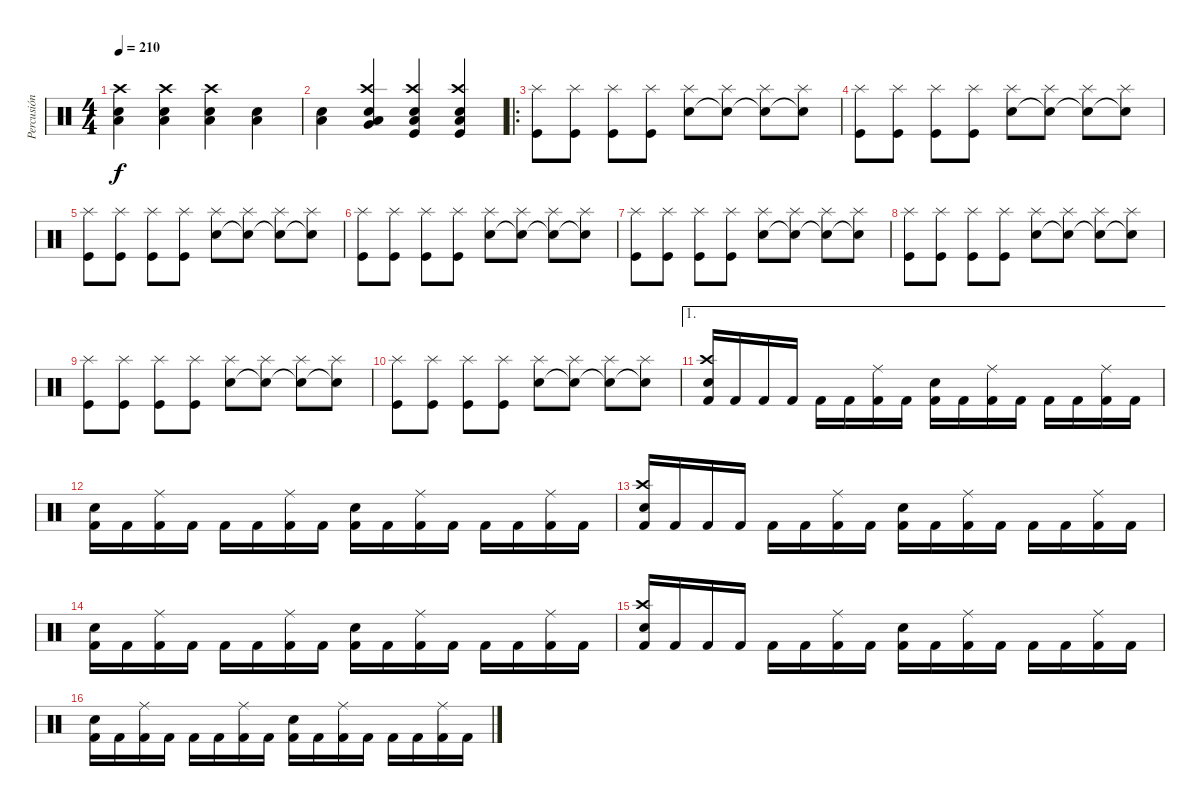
\track ("Percusión" "Percusión") {instrument percussion}
\staff {score}
\articulation defaults
\ts (4 4)
\tempo 210
\clef neutral
\ks c
("Snare (hit) 2" "Low Floor Tom (hit)" "Crash high (hit)").4{dy f} ("Snare (hit) 2" "Low Floor Tom (hit)" "Crash high (hit)").4 ("Snare (hit) 2" "Low Floor Tom (hit)" "Crash high (hit)").4 ("Snare (hit) 2" "Low Floor Tom (hit)").4 |
("Snare (hit) 2" "Low Floor Tom (hit)").4 ("Very Low Tom (hit)" "Snare (hit) 2" "Low Floor Tom (hit)" "Crash high (hit)").4 ("Kick (hit)" "Snare (hit) 2" "Low Floor Tom (hit)" "Crash high (hit)").4 ("Kick (hit)" "Snare (hit) 2" "Low Floor Tom (hit)" "Crash high (hit)").4 |
\ro
("Splash (hit)" "Kick (hit)").8 ("Splash (hit)" "Kick (hit)").8 ("Splash (hit)" "Kick (hit)").8 ("Splash (hit)" "Kick (hit)").8 ("Snare (hit) 2" "Splash (hit)").8 ("Snare (hit)"{t} "Splash (hit)").8 ("Snare (hit)"{t} "Splash (hit)").8 ("Snare (hit)"{t} "Splash (hit)").8 |
("Splash (hit)" "Kick (hit)").8 ("Splash (hit)" "Kick (hit)").8 ("Splash (hit)" "Kick (hit)").8 ("Splash (hit)" "Kick (hit)").8 ("Snare (hit) 2" "Splash (hit)").8 ("Snare (hit)"{t} "Splash (hit)").8 ("Snare (hit)"{t} "Splash (hit)").8 ("Snare (hit)"{t} "Splash (hit)").8 |
("Splash (hit)" "Kick (hit)").8 ("Splash (hit)" "Kick (hit)").8 ("Splash (hit)" "Kick (hit)").8 ("Splash (hit)" "Kick (hit)").8 ("Snare (hit) 2" "Splash (hit)").8 ("Snare (hit)"{t} "Splash (hit)").8 ("Snare (hit)"{t} "Splash (hit)").8 ("Snare (hit)"{t} "Splash (hit)").8 |
("Splash (hit)" "Kick (hit)").8 ("Splash (hit)" "Kick (hit)").8 ("Splash (hit)" "Kick (hit)").8 ("Splash (hit)" "Kick (hit)").8 ("Snare (hit) 2" "Splash (hit)").8 ("Snare (hit)"{t} "Splash (hit)").8 ("Snare (hit)"{t} "Splash (hit)").8 ("Snare (hit)"{t} "Splash (hit)").8 |
("Splash (hit)" "Kick (hit)").8 ("Splash (hit)" "Kick (hit)").8 ("Splash (hit)" "Kick (hit)").8 ("Splash (hit)" "Kick (hit)").8 ("Snare (hit) 2" "Splash (hit)").8 ("Snare (hit)"{t} "Splash (hit)").8 ("Snare (hit)"{t} "Splash (hit)").8 ("Snare (hit)"{t} "Splash (hit)").8 |
("Splash (hit)" "Kick (hit)").8 ("Splash (hit)" "Kick (hit)").8 ("Splash (hit)" "Kick (hit)").8 ("Splash (hit)" "Kick (hit)").8 ("Snare (hit) 2" "Splash (hit)").8 ("Snare (hit)"{t} "Splash (hit)").8 ("Snare (hit)"{t} "Splash (hit)").8 ("Snare (hit)"{t} "Splash (hit)").8 |
("Splash (hit)" "Kick (hit)").8 ("Splash (hit)" "Kick (hit)").8 ("Splash (hit)" "Kick (hit)").8 ("Splash (hit)" "Kick (hit)").8 ("Snare (hit) 2" "Splash (hit)").8 ("Snare (hit)"{t} "Splash (hit)").8 ("Snare (hit)"{t} "Splash (hit)").8 ("Snare (hit)"{t} "Splash (hit)").8 |
("Splash (hit)" "Kick (hit)").8 ("Splash (hit)" "Kick (hit)").8 ("Splash (hit)" "Kick (hit)").8 ("Splash (hit)" "Kick (hit)").8 ("Snare (hit) 2" "Splash (hit)").8 ("Snare (hit)"{t} "Splash (hit)").8 ("Snare (hit)"{t} "Splash (hit)").8 ("Snare (hit)"{t} "Splash (hit)").8 |
\ae 1
("Kick (hit) 2" "Snare (hit) 2" "Crash high (hit)").16 "Kick (hit) 2".16 "Kick (hit) 2".16 "Kick (hit) 2".16 "Kick (hit) 2".16 "Kick (hit) 2".16 ("Kick (hit) 2" "Ride (middle)").16 "Kick (hit) 2".16 ("Kick (hit) 2" "Snare (hit) 2").16 "Kick (hit) 2".16 ("Kick (hit) 2" "Ride (middle)").16 "Kick (hit) 2".16 "Kick (hit) 2".16 "Kick (hit) 2".16 ("Kick (hit) 2" "Ride (middle)").16 "Kick (hit) 2".16 |
("Kick (hit) 2" "Snare (hit) 2").16 "Kick (hit) 2".16 ("Kick (hit) 2" "Ride (middle)").16 "Kick (hit) 2".16 "Kick (hit) 2".16 "Kick (hit) 2".16 ("Kick (hit) 2" "Ride (middle)").16 "Kick (hit) 2".16 ("Kick (hit) 2" "Snare (hit) 2").16 "Kick (hit) 2".16 ("Kick (hit) 2" "Ride (middle)").16 "Kick (hit) 2".16 "Kick (hit) 2".16 "Kick (hit) 2".16 ("Kick (hit) 2" "Ride (middle)").16 "Kick (hit) 2".16 |
("Kick (hit) 2" "Snare (hit) 2" "Crash high (hit)").16 "Kick (hit) 2".16 "Kick (hit) 2".16 "Kick (hit) 2".16 "Kick (hit) 2".16 "Kick (hit) 2".16 ("Kick (hit) 2" "Ride (middle)").16 "Kick (hit) 2".16 ("Kick (hit) 2" "Snare (hit) 2").16 "Kick (hit) 2".16 ("Kick (hit) 2" "Ride (middle)").16 "Kick (hit) 2".16 "Kick (hit) 2".16 "Kick (hit) 2".16 ("Kick (hit) 2" "Ride (middle)").16 "Kick (hit) 2".16 |
("Kick (hit) 2" "Snare (hit) 2").16 "Kick (hit) 2".16 ("Kick (hit) 2" "Ride (middle)").16 "Kick (hit) 2".16 "Kick (hit) 2".16 "Kick (hit) 2".16 ("Kick (hit) 2" "Ride (middle)").16 "Kick (hit) 2".16 ("Kick (hit) 2" "Snare (hit) 2").16 "Kick (hit) 2".16 ("Kick (hit) 2" "Ride (middle)").16 "Kick (hit) 2".16 "Kick (hit) 2".16 "Kick (hit) 2".16 ("Kick (hit) 2" "Ride (middle)").16 "Kick (hit) 2".16 |
("Kick (hit) 2" "Snare (hit) 2" "Crash high (hit)").16 "Kick (hit) 2".16 "Kick (hit) 2".16 "Kick (hit) 2".16 "Kick (hit) 2".16 "Kick (hit) 2".16 ("Kick (hit) 2" "Ride (middle)").16 "Kick (hit) 2".16 ("Kick (hit) 2" "Snare (hit) 2").16 "Kick (hit) 2".16 ("Kick (hit) 2" "Ride (middle)").16 "Kick (hit) 2".16 "Kick (hit) 2".16 "Kick (hit) 2".16 ("Kick (hit) 2" "Ride (middle)").16 "Kick (hit) 2".16 |
("Kick (hit) 2" "Snare (hit) 2").16 "Kick (hit) 2".16 ("Kick (hit) 2" "Ride (middle)").16 "Kick (hit) 2".16 "Kick (hit) 2".16 "Kick (hit) 2".16 ("Kick (hit) 2" "Ride (middle)").16 "Kick (hit) 2".16 ("Kick (hit) 2" "Snare (hit) 2").16 "Kick (hit) 2".16 ("Kick (hit) 2" "Ride (middle)").16 "Kick (hit) 2".16 "Kick (hit) 2".16 "Kick (hit) 2".16 ("Kick (hit) 2" "Ride (middle)").16 "Kick (hit) 2".16
